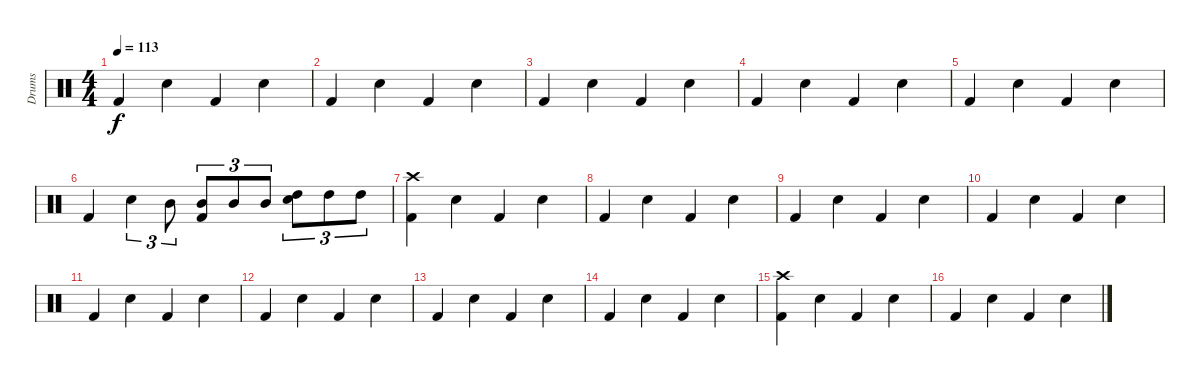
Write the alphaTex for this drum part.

\track ("Drums" "Drums") {instrument percussion}
\staff {score}
\articulation defaults
\ts (4 4)
\tempo 113
\clef neutral
\ks c "Kick (hit) 2".4{dy f} "Electric Snare (hit)".4 "Kick (hit) 2".4 "Electric Snare (hit)".4
|
"Kick (hit) 2".4 "Electric Snare (hit)".4 "Kick (hit) 2".4 "Electric Snare (hit)".4 |
"Kick (hit) 2".4 "Electric Snare (hit)".4 "Kick (hit) 2".4 "Electric Snare (hit)".4 |
"Kick (hit) 2".4 "Electric Snare (hit)".4 "Kick (hit) 2".4 "Electric Snare (hit)".4 |
"Kick (hit) 2".4 "Electric Snare (hit)".4 "Kick (hit) 2".4 "Electric Snare (hit)".4 |
"Kick (hit) 2".4 "Electric Snare (hit)".4{tu (3 2)} "Mid Tom (hit)".8{tu (3 2)} ("Mid Tom (hit)" "Kick (hit) 2").8{tu (3 2)} "Mid Tom (hit)".8{tu (3 2)} "Mid Tom (hit)".8{tu (3 2)} ("High Tom (hit)" "Electric Snare (hit)").8{tu (3 2)} "High Tom (hit)".8{tu (3 2)} "High Tom (hit)".8{tu (3 2)} |
("Crash high (hit)" "Kick (hit) 2").4 "Electric Snare (hit)".4 "Kick (hit) 2".4 "Electric Snare (hit)".4 |
"Kick (hit) 2".4 "Electric Snare (hit)".4 "Kick (hit) 2".4 "Electric Snare (hit)".4 |
"Kick (hit) 2".4 "Electric Snare (hit)".4 "Kick (hit) 2".4 "Electric Snare (hit)".4 |
"Kick (hit) 2".4 "Electric Snare (hit)".4 "Kick (hit) 2".4 "Electric Snare (hit)".4 |
"Kick (hit) 2".4 "Electric Snare (hit)".4 "Kick (hit) 2".4 "Electric Snare (hit)".4 |
"Kick (hit) 2".4 "Electric Snare (hit)".4 "Kick (hit) 2".4 "Electric Snare (hit)".4 |
"Kick (hit) 2".4 "Electric Snare (hit)".4 "Kick (hit) 2".4 "Electric Snare (hit)".4 |
"Kick (hit) 2".4 "Electric Snare (hit)".4 "Kick (hit) 2".4 "Electric Snare (hit)".4 |
("Crash high (hit)" "Kick (hit) 2").4 "Electric Snare (hit)".4 "Kick (hit) 2".4 "Electric Snare (hit)".4 |
"Kick (hit) 2".4 "Electric Snare (hit)".4 "Kick (hit) 2".4 "Electric Snare (hit)".4
